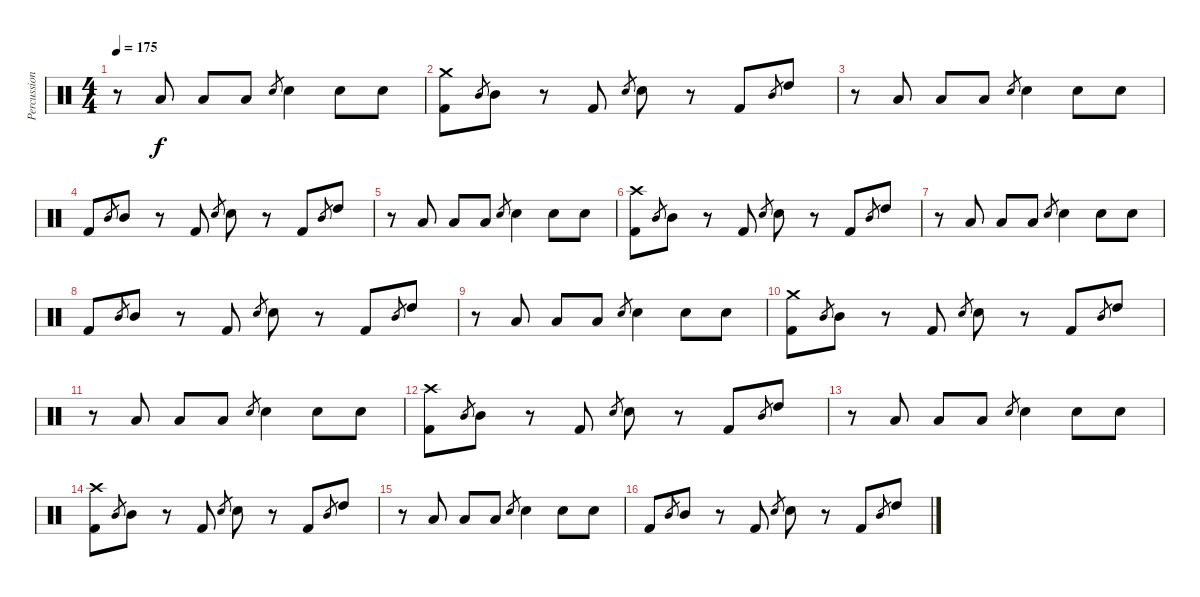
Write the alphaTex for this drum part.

\track ("Percussion" "Percussion") {instrument percussion}
\staff {score}
\articulation defaults
\ts (4 4)
\tempo 175
\clef neutral
\ks c
r.8{dy f} "Low Tom (hit)".8 "Low Tom (hit)".8 "Low Tom (hit)".8 "Electric Snare (hit)".8{gr} "Electric Snare (hit)".4 "Electric Snare (hit)".8 "Electric Snare (hit)".8 |
("Crash medium (hit)" "Kick (hit) 2").8 "Mid Tom (hit)".8{gr} "Mid Tom (hit)".8 r.8 "Kick (hit) 2".8 "Electric Snare (hit)".8{gr} "Electric Snare (hit)".8 r.8 "Kick (hit) 2".8 "Mid Tom (hit)".8{gr} "High Tom (hit)".8 |
r.8 "Low Tom (hit)".8 "Low Tom (hit)".8 "Low Tom (hit)".8 "Electric Snare (hit)".8{gr} "Electric Snare (hit)".4 "Electric Snare (hit)".8 "Electric Snare (hit)".8 |
"Kick (hit) 2".8 "Mid Tom (hit)".8{gr} "Mid Tom (hit)".8 r.8 "Kick (hit) 2".8 "Electric Snare (hit)".8{gr} "Electric Snare (hit)".8 r.8 "Kick (hit) 2".8 "Mid Tom (hit)".8{gr} "High Tom (hit)".8 |
r.8 "Low Tom (hit)".8 "Low Tom (hit)".8 "Low Tom (hit)".8 "Electric Snare (hit)".8{gr} "Electric Snare (hit)".4 "Electric Snare (hit)".8 "Electric Snare (hit)".8 |
("Crash high (hit)" "Kick (hit) 2").8 "Mid Tom (hit)".8{gr} "Mid Tom (hit)".8 r.8 "Kick (hit) 2".8 "Electric Snare (hit)".8{gr} "Electric Snare (hit)".8 r.8 "Kick (hit) 2".8 "Mid Tom (hit)".8{gr} "High Tom (hit)".8 |
r.8 "Low Tom (hit)".8 "Low Tom (hit)".8 "Low Tom (hit)".8 "Electric Snare (hit)".8{gr} "Electric Snare (hit)".4 "Electric Snare (hit)".8 "Electric Snare (hit)".8 |
"Kick (hit) 2".8 "Mid Tom (hit)".8{gr} "Mid Tom (hit)".8 r.8 "Kick (hit) 2".8 "Electric Snare (hit)".8{gr} "Electric Snare (hit)".8 r.8 "Kick (hit) 2".8 "Mid Tom (hit)".8{gr} "High Tom (hit)".8 |
r.8 "Low Tom (hit)".8 "Low Tom (hit)".8 "Low Tom (hit)".8 "Electric Snare (hit)".8{gr} "Electric Snare (hit)".4 "Electric Snare (hit)".8 "Electric Snare (hit)".8 |
("Crash medium (hit)" "Kick (hit) 2").8 "Mid Tom (hit)".8{gr} "Mid Tom (hit)".8 r.8 "Kick (hit) 2".8 "Electric Snare (hit)".8{gr} "Electric Snare (hit)".8 r.8 "Kick (hit) 2".8 "Mid Tom (hit)".8{gr} "High Tom (hit)".8 |
r.8 "Low Tom (hit)".8 "Low Tom (hit)".8 "Low Tom (hit)".8 "Electric Snare (hit)".8{gr} "Electric Snare (hit)".4 "Electric Snare (hit)".8 "Electric Snare (hit)".8 |
("Crash high (hit)" "Kick (hit) 2").8 "Mid Tom (hit)".8{gr} "Mid Tom (hit)".8 r.8 "Kick (hit) 2".8 "Electric Snare (hit)".8{gr} "Electric Snare (hit)".8 r.8 "Kick (hit) 2".8 "Mid Tom (hit)".8{gr} "High Tom (hit)".8 |
r.8 "Low Tom (hit)".8 "Low Tom (hit)".8 "Low Tom (hit)".8 "Electric Snare (hit)".8{gr} "Electric Snare (hit)".4 "Electric Snare (hit)".8 "Electric Snare (hit)".8 |
("Crash high (hit)" "Kick (hit) 2").8 "Mid Tom (hit)".8{gr} "Mid Tom (hit)".8 r.8 "Kick (hit) 2".8 "Electric Snare (hit)".8{gr} "Electric Snare (hit)".8 r.8 "Kick (hit) 2".8 "Mid Tom (hit)".8{gr} "High Tom (hit)".8 |
r.8 "Low Tom (hit)".8 "Low Tom (hit)".8 "Low Tom (hit)".8 "Electric Snare (hit)".8{gr} "Electric Snare (hit)".4 "Electric Snare (hit)".8 "Electric Snare (hit)".8 |
"Kick (hit) 2".8 "Mid Tom (hit)".8{gr} "Mid Tom (hit)".8 r.8 "Kick (hit) 2".8 "Electric Snare (hit)".8{gr} "Electric Snare (hit)".8 r.8 "Kick (hit) 2".8 "Mid Tom (hit)".8{gr} "High Tom (hit)".8
